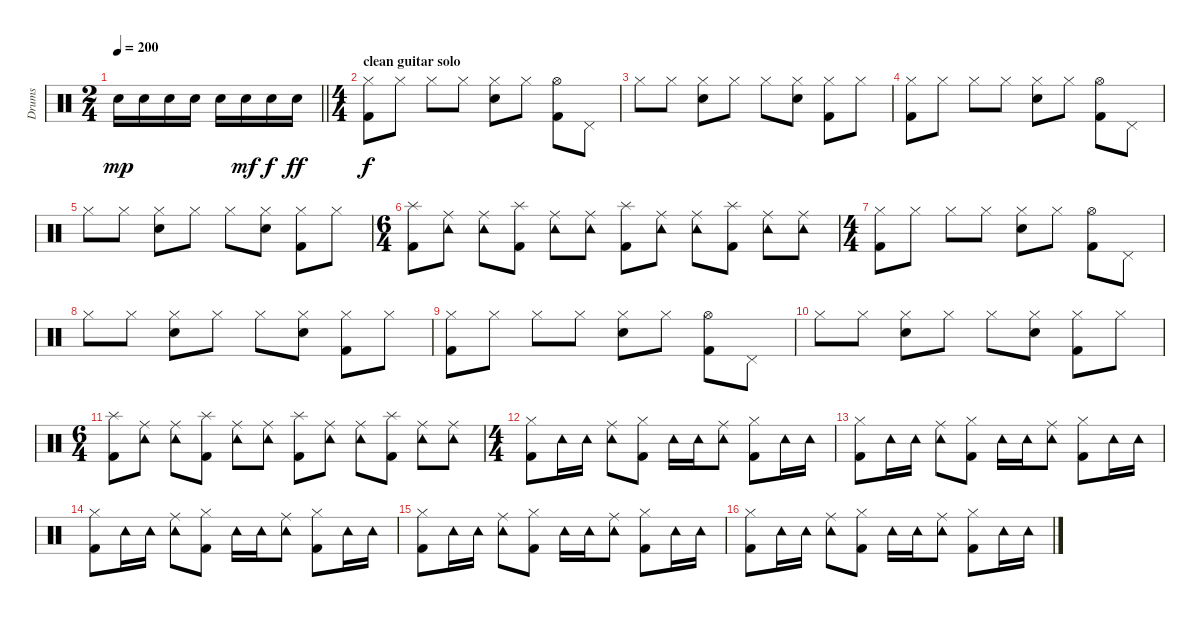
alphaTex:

\track ("Drums" "Drums") {instrument percussion}
\staff {score}
\articulation defaults
\ts (2 4)
\tempo 200
\clef neutral
\barLineRight lightlight
\ks c "Electric Snare (hit)".16{dy mp} "Electric Snare (hit)".16 "Electric Snare (hit)".16 "Electric Snare (hit)".16 "Electric Snare (hit)".16 "Electric Snare (hit)".16{dy mf} "Electric Snare (hit)".16{dy f} "Electric Snare (hit)".16{dy ff}
|
\ts (4 4)
\section ("" "clean guitar solo")
("Hi-Hat (closed)" "Kick (hit) 2").8{dy f} "Hi-Hat (closed)".8 "Hi-Hat (closed)".8 "Hi-Hat (closed)".8 ("Hi-Hat (closed)" "Electric Snare (hit)").8 "Hi-Hat (closed)".8 ("Hi-Hat (open)" "Kick (hit) 2").8 "Pedal Hi-Hat (hit)".8 |
"Hi-Hat (closed)".8 "Hi-Hat (closed)".8 ("Hi-Hat (closed)" "Electric Snare (hit)").8 "Hi-Hat (closed)".8 "Hi-Hat (closed)".8 ("Hi-Hat (closed)" "Electric Snare (hit)").8 ("Hi-Hat (closed)" "Kick (hit) 2").8 "Hi-Hat (closed)".8 |
("Hi-Hat (closed)" "Kick (hit) 2").8 "Hi-Hat (closed)".8 "Hi-Hat (closed)".8 "Hi-Hat (closed)".8 ("Hi-Hat (closed)" "Electric Snare (hit)").8 "Hi-Hat (closed)".8 ("Hi-Hat (open)" "Kick (hit) 2").8 "Pedal Hi-Hat (hit)".8 |
"Hi-Hat (closed)".8 "Hi-Hat (closed)".8 ("Hi-Hat (closed)" "Electric Snare (hit)").8 "Hi-Hat (closed)".8 "Hi-Hat (closed)".8 ("Hi-Hat (closed)" "Electric Snare (hit)").8 ("Hi-Hat (closed)" "Kick (hit) 2").8 "Hi-Hat (closed)".8 |
\ts (6 4)
("Splash (hit)" "Kick (hit) 2").8 ("Ride (middle)" "Tambourine (hit)").8 ("Ride (middle)" "Tambourine (hit)").8 ("Splash (hit)" "Kick (hit) 2").8 ("Ride (middle)" "Tambourine (hit)").8 ("Ride (middle)" "Tambourine (hit)").8 ("Splash (hit)" "Kick (hit) 2").8 ("Ride (middle)" "Tambourine (hit)").8 ("Ride (middle)" "Tambourine (hit)").8 ("Splash (hit)" "Kick (hit) 2").8 ("Ride (middle)" "Tambourine (hit)").8 ("Ride (middle)" "Tambourine (hit)").8 |
\ts (4 4)
("Hi-Hat (closed)" "Kick (hit) 2").8 "Hi-Hat (closed)".8 "Hi-Hat (closed)".8 "Hi-Hat (closed)".8 ("Hi-Hat (closed)" "Electric Snare (hit)").8 "Hi-Hat (closed)".8 ("Hi-Hat (open)" "Kick (hit) 2").8 "Pedal Hi-Hat (hit)".8 |
"Hi-Hat (closed)".8 "Hi-Hat (closed)".8 ("Hi-Hat (closed)" "Electric Snare (hit)").8 "Hi-Hat (closed)".8 "Hi-Hat (closed)".8 ("Hi-Hat (closed)" "Electric Snare (hit)").8 ("Hi-Hat (closed)" "Kick (hit) 2").8 "Hi-Hat (closed)".8 |
("Hi-Hat (closed)" "Kick (hit) 2").8 "Hi-Hat (closed)".8 "Hi-Hat (closed)".8 "Hi-Hat (closed)".8 ("Hi-Hat (closed)" "Electric Snare (hit)").8 "Hi-Hat (closed)".8 ("Hi-Hat (open)" "Kick (hit) 2").8 "Pedal Hi-Hat (hit)".8 |
"Hi-Hat (closed)".8 "Hi-Hat (closed)".8 ("Hi-Hat (closed)" "Electric Snare (hit)").8 "Hi-Hat (closed)".8 "Hi-Hat (closed)".8 ("Hi-Hat (closed)" "Electric Snare (hit)").8 ("Hi-Hat (closed)" "Kick (hit) 2").8 "Hi-Hat (closed)".8 |
\ts (6 4)
("Splash (hit)" "Kick (hit) 2").8 ("Ride (middle)" "Tambourine (hit)").8 ("Ride (middle)" "Tambourine (hit)").8 ("Splash (hit)" "Kick (hit) 2").8 ("Ride (middle)" "Tambourine (hit)").8 ("Ride (middle)" "Tambourine (hit)").8 ("Splash (hit)" "Kick (hit) 2").8 ("Ride (middle)" "Tambourine (hit)").8 ("Ride (middle)" "Tambourine (hit)").8 ("Splash (hit)" "Kick (hit) 2").8 ("Ride (middle)" "Tambourine (hit)").8 ("Ride (middle)" "Tambourine (hit)").8 |
\ts (4 4)
("Hi-Hat (closed)" "Kick (hit) 2").8 "Tambourine (hit)".16 "Tambourine (hit)".16 ("Ride (middle)" "Tambourine (hit)").8 ("Hi-Hat (closed)" "Kick (hit) 2").8 "Tambourine (hit)".16 "Tambourine (hit)".16 ("Ride (middle)" "Tambourine (hit)").8 ("Hi-Hat (closed)" "Kick (hit) 2").8 "Tambourine (hit)".16 "Tambourine (hit)".16 |
("Hi-Hat (closed)" "Kick (hit) 2").8 "Tambourine (hit)".16 "Tambourine (hit)".16 ("Ride (middle)" "Tambourine (hit)").8 ("Hi-Hat (closed)" "Kick (hit) 2").8 "Tambourine (hit)".16 "Tambourine (hit)".16 ("Ride (middle)" "Tambourine (hit)").8 ("Hi-Hat (closed)" "Kick (hit) 2").8 "Tambourine (hit)".16 "Tambourine (hit)".16 |
("Hi-Hat (closed)" "Kick (hit) 2").8 "Tambourine (hit)".16 "Tambourine (hit)".16 ("Ride (middle)" "Tambourine (hit)").8 ("Hi-Hat (closed)" "Kick (hit) 2").8 "Tambourine (hit)".16 "Tambourine (hit)".16 ("Ride (middle)" "Tambourine (hit)").8 ("Hi-Hat (closed)" "Kick (hit) 2").8 "Tambourine (hit)".16 "Tambourine (hit)".16 |
("Hi-Hat (closed)" "Kick (hit) 2").8 "Tambourine (hit)".16 "Tambourine (hit)".16 ("Ride (middle)" "Tambourine (hit)").8 ("Hi-Hat (closed)" "Kick (hit) 2").8 "Tambourine (hit)".16 "Tambourine (hit)".16 ("Ride (middle)" "Tambourine (hit)").8 ("Hi-Hat (closed)" "Kick (hit) 2").8 "Tambourine (hit)".16 "Tambourine (hit)".16 |
("Hi-Hat (closed)" "Kick (hit) 2").8 "Tambourine (hit)".16 "Tambourine (hit)".16 ("Ride (middle)" "Tambourine (hit)").8 ("Hi-Hat (closed)" "Kick (hit) 2").8 "Tambourine (hit)".16 "Tambourine (hit)".16 ("Ride (middle)" "Tambourine (hit)").8 ("Hi-Hat (closed)" "Kick (hit) 2").8 "Tambourine (hit)".16 "Tambourine (hit)".16
